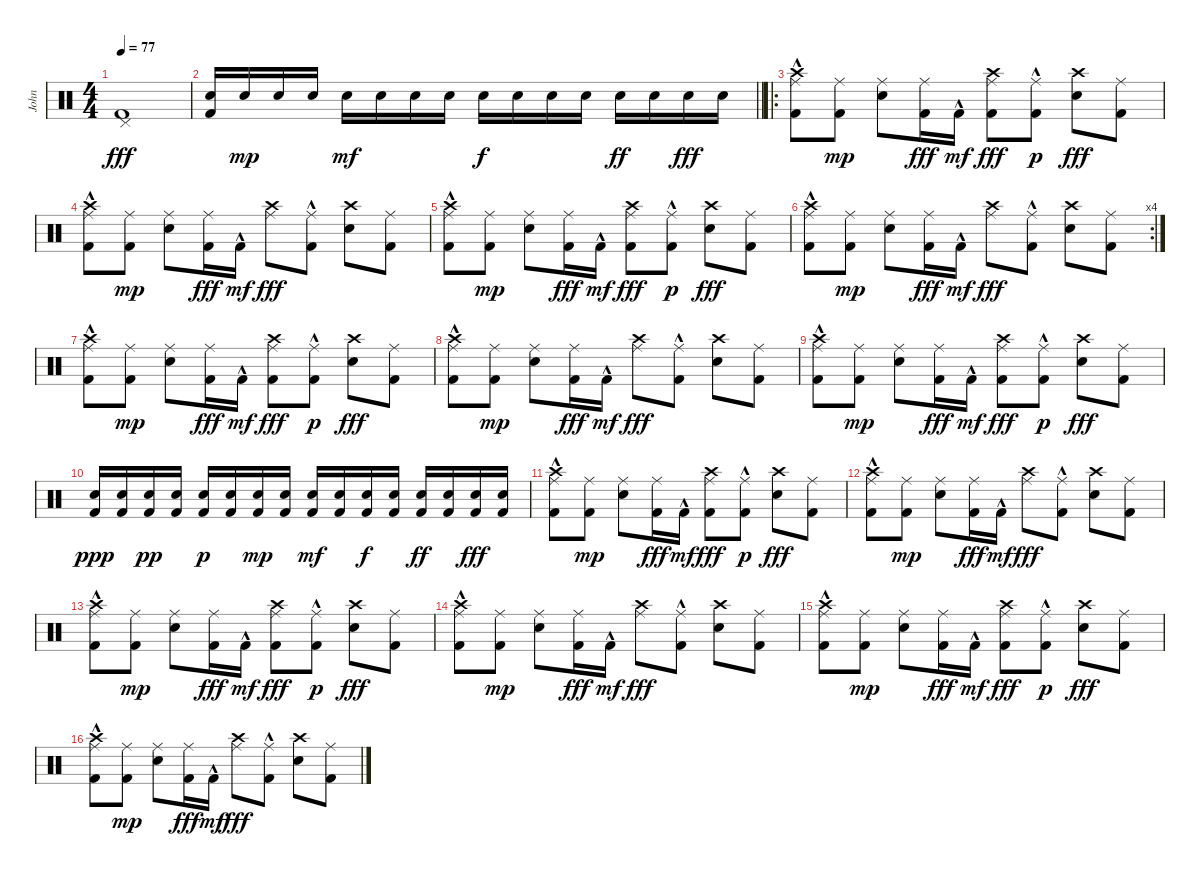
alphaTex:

\track ("John" "John") {instrument percussion}
\staff {score}
\articulation defaults
\ts (4 4)
\tempo 77
\clef neutral
\ks c
("Pedal Hi-Hat (hit)" "Kick (hit) 2").1{dy fff} |
\barLineRight lightlight
("Electric Snare (hit)" "Kick (hit) 2").16 "Electric Snare (hit)".16{dy mp} "Electric Snare (hit)".16 "Electric Snare (hit)".16 "Electric Snare (hit)".16{dy mf} "Electric Snare (hit)".16 "Electric Snare (hit)".16 "Electric Snare (hit)".16 "Electric Snare (hit)".16{dy f} "Electric Snare (hit)".16 "Electric Snare (hit)".16 "Electric Snare (hit)".16 "Electric Snare (hit)".16{dy ff} "Electric Snare (hit)".16 "Electric Snare (hit)".16{dy fff} "Electric Snare (hit)".16 |
\ro
("Ride (middle)" "Crash high (hit)"{hac} "Kick (hit) 2"{hac}).8 ("Ride (middle)" "Kick (hit) 2").8{dy mp} ("Ride (middle)" "Electric Snare (hit)").8 ("Ride (middle)" "Kick (hit) 2").16{dy fff} "Kick (hit) 2"{hac}.16{dy mf} ("Ride (middle)" "Crash high (hit)" "Kick (hit) 2").8{dy fff} ("Ride (middle)"{hac} "Kick (hit) 2"{hac}).8{dy p} ("Crash high (hit)" "Electric Snare (hit)").8{dy fff} ("Ride (middle)" "Kick (hit) 2").8 |
("Ride (middle)" "Crash high (hit)"{hac} "Kick (hit) 2"{hac}).8 ("Ride (middle)" "Kick (hit) 2").8{dy mp} ("Ride (middle)" "Electric Snare (hit)").8 ("Ride (middle)" "Kick (hit) 2").16{dy fff} "Kick (hit) 2"{hac}.16{dy mf} ("Ride (middle)" "Crash high (hit)").8{dy fff} ("Ride (middle)"{hac} "Kick (hit) 2").8 ("Crash high (hit)" "Electric Snare (hit)").8 ("Ride (middle)" "Kick (hit) 2").8 |
("Ride (middle)" "Crash high (hit)"{hac} "Kick (hit) 2"{hac}).8 ("Ride (middle)" "Kick (hit) 2").8{dy mp} ("Ride (middle)" "Electric Snare (hit)").8 ("Ride (middle)" "Kick (hit) 2").16{dy fff} "Kick (hit) 2"{hac}.16{dy mf} ("Ride (middle)" "Crash high (hit)" "Kick (hit) 2").8{dy fff} ("Ride (middle)"{hac} "Kick (hit) 2"{hac}).8{dy p} ("Crash high (hit)" "Electric Snare (hit)").8{dy fff} ("Ride (middle)" "Kick (hit) 2").8 |
\rc 4
("Ride (middle)" "Crash high (hit)"{hac} "Kick (hit) 2"{hac}).8 ("Ride (middle)" "Kick (hit) 2").8{dy mp} ("Ride (middle)" "Electric Snare (hit)").8 ("Ride (middle)" "Kick (hit) 2").16{dy fff} "Kick (hit) 2"{hac}.16{dy mf} ("Ride (middle)" "Crash high (hit)").8{dy fff} ("Ride (middle)"{hac} "Kick (hit) 2").8 ("Crash high (hit)" "Electric Snare (hit)").8 ("Ride (middle)" "Kick (hit) 2").8 |
("Ride (middle)" "Crash high (hit)"{hac} "Kick (hit) 2"{hac}).8 ("Ride (middle)" "Kick (hit) 2").8{dy mp} ("Ride (middle)" "Electric Snare (hit)").8 ("Ride (middle)" "Kick (hit) 2").16{dy fff} "Kick (hit) 2"{hac}.16{dy mf} ("Ride (middle)" "Crash high (hit)" "Kick (hit) 2").8{dy fff} ("Ride (middle)"{hac} "Kick (hit) 2"{hac}).8{dy p} ("Crash high (hit)" "Electric Snare (hit)").8{dy fff} ("Ride (middle)" "Kick (hit) 2").8 |
("Ride (middle)" "Crash high (hit)"{hac} "Kick (hit) 2"{hac}).8 ("Ride (middle)" "Kick (hit) 2").8{dy mp} ("Ride (middle)" "Electric Snare (hit)").8 ("Ride (middle)" "Kick (hit) 2").16{dy fff} "Kick (hit) 2"{hac}.16{dy mf} ("Ride (middle)" "Crash high (hit)").8{dy fff} ("Ride (middle)"{hac} "Kick (hit) 2").8 ("Crash high (hit)" "Electric Snare (hit)").8 ("Ride (middle)" "Kick (hit) 2").8 |
("Ride (middle)" "Crash high (hit)"{hac} "Kick (hit) 2"{hac}).8 ("Ride (middle)" "Kick (hit) 2").8{dy mp} ("Ride (middle)" "Electric Snare (hit)").8 ("Ride (middle)" "Kick (hit) 2").16{dy fff} "Kick (hit) 2"{hac}.16{dy mf} ("Ride (middle)" "Crash high (hit)" "Kick (hit) 2").8{dy fff} ("Ride (middle)"{hac} "Kick (hit) 2"{hac}).8{dy p} ("Crash high (hit)" "Electric Snare (hit)").8{dy fff} ("Ride (middle)" "Kick (hit) 2").8 |
("Electric Snare (hit)" "Kick (hit) 2").16{dy ppp} ("Electric Snare (hit)" "Kick (hit) 2").16 ("Electric Snare (hit)" "Kick (hit) 2").16{dy pp} ("Electric Snare (hit)" "Kick (hit) 2").16 ("Electric Snare (hit)" "Kick (hit) 2").16{dy p} ("Electric Snare (hit)" "Kick (hit) 2").16 ("Electric Snare (hit)" "Kick (hit) 2").16{dy mp} ("Electric Snare (hit)" "Kick (hit) 2").16 ("Electric Snare (hit)" "Kick (hit) 2").16{dy mf} ("Electric Snare (hit)" "Kick (hit) 2").16 ("Electric Snare (hit)" "Kick (hit) 2").16{dy f} ("Electric Snare (hit)" "Kick (hit) 2").16 ("Electric Snare (hit)" "Kick (hit) 2").16{dy ff} ("Electric Snare (hit)" "Kick (hit) 2").16 ("Electric Snare (hit)" "Kick (hit) 2").16{dy fff} ("Electric Snare (hit)" "Kick (hit) 2").16 |
("Ride (middle)" "Crash high (hit)"{hac} "Kick (hit) 2"{hac}).8 ("Ride (middle)" "Kick (hit) 2").8{dy mp} ("Ride (middle)" "Electric Snare (hit)").8 ("Ride (middle)" "Kick (hit) 2").16{dy fff} "Kick (hit) 2"{hac}.16{dy mf} ("Ride (middle)" "Crash high (hit)" "Kick (hit) 2").8{dy fff} ("Ride (middle)"{hac} "Kick (hit) 2"{hac}).8{dy p} ("Crash high (hit)" "Electric Snare (hit)").8{dy fff} ("Ride (middle)" "Kick (hit) 2").8 |
("Ride (middle)" "Crash high (hit)"{hac} "Kick (hit) 2"{hac}).8 ("Ride (middle)" "Kick (hit) 2").8{dy mp} ("Ride (middle)" "Electric Snare (hit)").8 ("Ride (middle)" "Kick (hit) 2").16{dy fff} "Kick (hit) 2"{hac}.16{dy mf} ("Ride (middle)" "Crash high (hit)").8{dy fff} ("Ride (middle)"{hac} "Kick (hit) 2").8 ("Crash high (hit)" "Electric Snare (hit)").8 ("Ride (middle)" "Kick (hit) 2").8 |
("Ride (middle)" "Crash high (hit)"{hac} "Kick (hit) 2"{hac}).8 ("Ride (middle)" "Kick (hit) 2").8{dy mp} ("Ride (middle)" "Electric Snare (hit)").8 ("Ride (middle)" "Kick (hit) 2").16{dy fff} "Kick (hit) 2"{hac}.16{dy mf} ("Ride (middle)" "Crash high (hit)" "Kick (hit) 2").8{dy fff} ("Ride (middle)"{hac} "Kick (hit) 2"{hac}).8{dy p} ("Crash high (hit)" "Electric Snare (hit)").8{dy fff} ("Ride (middle)" "Kick (hit) 2").8 |
("Ride (middle)" "Crash high (hit)"{hac} "Kick (hit) 2"{hac}).8 ("Ride (middle)" "Kick (hit) 2").8{dy mp} ("Ride (middle)" "Electric Snare (hit)").8 ("Ride (middle)" "Kick (hit) 2").16{dy fff} "Kick (hit) 2"{hac}.16{dy mf} ("Ride (middle)" "Crash high (hit)").8{dy fff} ("Ride (middle)"{hac} "Kick (hit) 2").8 ("Crash high (hit)" "Electric Snare (hit)").8 ("Ride (middle)" "Kick (hit) 2").8 |
("Ride (middle)" "Crash high (hit)"{hac} "Kick (hit) 2"{hac}).8 ("Ride (middle)" "Kick (hit) 2").8{dy mp} ("Ride (middle)" "Electric Snare (hit)").8 ("Ride (middle)" "Kick (hit) 2").16{dy fff} "Kick (hit) 2"{hac}.16{dy mf} ("Ride (middle)" "Crash high (hit)" "Kick (hit) 2").8{dy fff} ("Ride (middle)"{hac} "Kick (hit) 2"{hac}).8{dy p} ("Crash high (hit)" "Electric Snare (hit)").8{dy fff} ("Ride (middle)" "Kick (hit) 2").8 |
("Ride (middle)" "Crash high (hit)"{hac} "Kick (hit) 2"{hac}).8 ("Ride (middle)" "Kick (hit) 2").8{dy mp} ("Ride (middle)" "Electric Snare (hit)").8 ("Ride (middle)" "Kick (hit) 2").16{dy fff} "Kick (hit) 2"{hac}.16{dy mf} ("Ride (middle)" "Crash high (hit)").8{dy fff} ("Ride (middle)"{hac} "Kick (hit) 2").8 ("Crash high (hit)" "Electric Snare (hit)").8 ("Ride (middle)" "Kick (hit) 2").8
